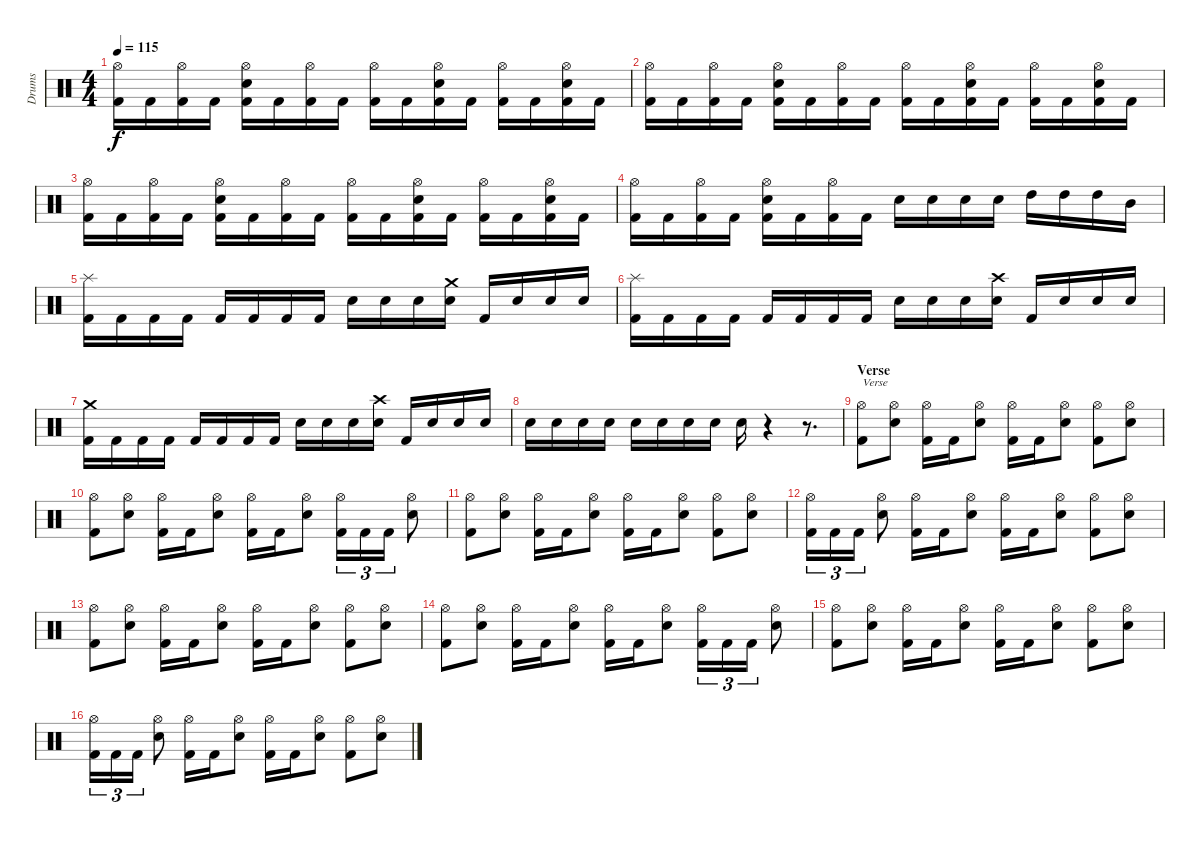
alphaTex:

\track ("Drums" "Drums") {instrument percussion}
\staff {score}
\articulation defaults
\ts (4 4)
\tempo 115
\clef neutral
\ks c
("Kick (hit) 2" "Hi-Hat (open)").16{dy f} "Kick (hit) 2".16 ("Kick (hit) 2" "Hi-Hat (open)").16 "Kick (hit) 2".16 ("Kick (hit) 2" "Electric Snare (hit)" "Hi-Hat (open)").16 "Kick (hit) 2".16 ("Kick (hit) 2" "Hi-Hat (open)").16 "Kick (hit) 2".16 ("Kick (hit) 2" "Hi-Hat (open)").16 "Kick (hit) 2".16 ("Kick (hit) 2" "Electric Snare (hit)" "Hi-Hat (open)").16 "Kick (hit) 2".16 ("Kick (hit) 2" "Hi-Hat (open)").16 "Kick (hit) 2".16 ("Kick (hit) 2" "Electric Snare (hit)" "Hi-Hat (open)").16 "Kick (hit) 2".16 |
("Kick (hit) 2" "Hi-Hat (open)").16 "Kick (hit) 2".16 ("Kick (hit) 2" "Hi-Hat (open)").16 "Kick (hit) 2".16 ("Kick (hit) 2" "Electric Snare (hit)" "Hi-Hat (open)").16 "Kick (hit) 2".16 ("Kick (hit) 2" "Hi-Hat (open)").16 "Kick (hit) 2".16 ("Kick (hit) 2" "Hi-Hat (open)").16 "Kick (hit) 2".16 ("Kick (hit) 2" "Electric Snare (hit)" "Hi-Hat (open)").16 "Kick (hit) 2".16 ("Kick (hit) 2" "Hi-Hat (open)").16 "Kick (hit) 2".16 ("Kick (hit) 2" "Electric Snare (hit)" "Hi-Hat (open)").16 "Kick (hit) 2".16 |
("Kick (hit) 2" "Hi-Hat (open)").16 "Kick (hit) 2".16 ("Kick (hit) 2" "Hi-Hat (open)").16 "Kick (hit) 2".16 ("Kick (hit) 2" "Electric Snare (hit)" "Hi-Hat (open)").16 "Kick (hit) 2".16 ("Kick (hit) 2" "Hi-Hat (open)").16 "Kick (hit) 2".16 ("Kick (hit) 2" "Hi-Hat (open)").16 "Kick (hit) 2".16 ("Kick (hit) 2" "Electric Snare (hit)" "Hi-Hat (open)").16 "Kick (hit) 2".16 ("Kick (hit) 2" "Hi-Hat (open)").16 "Kick (hit) 2".16 ("Kick (hit) 2" "Electric Snare (hit)" "Hi-Hat (open)").16 "Kick (hit) 2".16 |
("Kick (hit) 2" "Hi-Hat (open)").16 "Kick (hit) 2".16 ("Kick (hit) 2" "Hi-Hat (open)").16 "Kick (hit) 2".16 ("Kick (hit) 2" "Electric Snare (hit)" "Hi-Hat (open)").16 "Kick (hit) 2".16 ("Kick (hit) 2" "Hi-Hat (open)").16 "Kick (hit) 2".16 "Electric Snare (hit)".16 "Electric Snare (hit)".16 "Electric Snare (hit)".16 "Electric Snare (hit)".16 "High Tom (hit)".16 "High Tom (hit)".16 "High Tom (hit)".16 "Mid Tom (hit)".16 |
("Kick (hit) 2" "Splash (hit)").16 "Kick (hit) 2".16 "Kick (hit) 2".16 "Kick (hit) 2".16 "Kick (hit) 2".16 "Kick (hit) 2".16 "Kick (hit) 2".16 "Kick (hit) 2".16 "Electric Snare (hit)".16 "Electric Snare (hit)".16 "Electric Snare (hit)".16 ("Electric Snare (hit)" "Crash medium (hit)").16 "Kick (hit) 2".16 "Electric Snare (hit)".16 "Electric Snare (hit)".16 "Electric Snare (hit)".16 |
("Kick (hit) 2" "Splash (hit)").16 "Kick (hit) 2".16 "Kick (hit) 2".16 "Kick (hit) 2".16 "Kick (hit) 2".16 "Kick (hit) 2".16 "Kick (hit) 2".16 "Kick (hit) 2".16 "Electric Snare (hit)".16 "Electric Snare (hit)".16 "Electric Snare (hit)".16 ("Electric Snare (hit)" "Crash high (hit)").16 "Kick (hit) 2".16 "Electric Snare (hit)".16 "Electric Snare (hit)".16 "Electric Snare (hit)".16 |
("Kick (hit) 2" "Crash medium (hit)").16 "Kick (hit) 2".16 "Kick (hit) 2".16 "Kick (hit) 2".16 "Kick (hit) 2".16 "Kick (hit) 2".16 "Kick (hit) 2".16 "Kick (hit) 2".16 "Electric Snare (hit)".16 "Electric Snare (hit)".16 "Electric Snare (hit)".16 ("Electric Snare (hit)" "Crash high (hit)").16 "Kick (hit) 2".16 "Electric Snare (hit)".16 "Electric Snare (hit)".16 "Electric Snare (hit)".16 |
"Electric Snare (hit)".16 "Electric Snare (hit)".16 "Electric Snare (hit)".16 "Electric Snare (hit)".16 "Electric Snare (hit)".16 "Electric Snare (hit)".16 "Electric Snare (hit)".16 "Electric Snare (hit)".16 "Electric Snare (hit)".16 r.4 r.8{d} |
\section ("" "Verse")
("Kick (hit) 2" "Hi-Hat (open)").8{txt "Verse"} ("Electric Snare (hit)" "Hi-Hat (open)").8 ("Kick (hit) 2" "Hi-Hat (open)").16 "Kick (hit) 2".16 ("Electric Snare (hit)" "Hi-Hat (open)").8 ("Kick (hit) 2" "Hi-Hat (open)").16 "Kick (hit) 2".16 ("Electric Snare (hit)" "Hi-Hat (open)").8 ("Kick (hit) 2" "Hi-Hat (open)").8 ("Electric Snare (hit)" "Hi-Hat (open)").8 |
("Kick (hit) 2" "Hi-Hat (open)").8 ("Electric Snare (hit)" "Hi-Hat (open)").8 ("Kick (hit) 2" "Hi-Hat (open)").16 "Kick (hit) 2".16 ("Electric Snare (hit)" "Hi-Hat (open)").8 ("Kick (hit) 2" "Hi-Hat (open)").16 "Kick (hit) 2".16 ("Electric Snare (hit)" "Hi-Hat (open)").8 ("Kick (hit) 2" "Hi-Hat (open)").16{tu (3 2)} "Kick (hit) 2".16{tu (3 2)} "Kick (hit) 2".16{tu (3 2)} ("Electric Snare (hit)" "Hi-Hat (open)").8 |
("Kick (hit) 2" "Hi-Hat (open)").8 ("Electric Snare (hit)" "Hi-Hat (open)").8 ("Kick (hit) 2" "Hi-Hat (open)").16 "Kick (hit) 2".16 ("Electric Snare (hit)" "Hi-Hat (open)").8 ("Kick (hit) 2" "Hi-Hat (open)").16 "Kick (hit) 2".16 ("Electric Snare (hit)" "Hi-Hat (open)").8 ("Kick (hit) 2" "Hi-Hat (open)").8 ("Electric Snare (hit)" "Hi-Hat (open)").8 |
("Kick (hit) 2" "Hi-Hat (open)").16{tu (3 2)} "Kick (hit) 2".16{tu (3 2)} "Kick (hit) 2".16{tu (3 2)} ("Electric Snare (hit)" "Hi-Hat (open)").8 ("Kick (hit) 2" "Hi-Hat (open)").16 "Kick (hit) 2".16 ("Electric Snare (hit)" "Hi-Hat (open)").8 ("Kick (hit) 2" "Hi-Hat (open)").16 "Kick (hit) 2".16 ("Electric Snare (hit)" "Hi-Hat (open)").8 ("Kick (hit) 2" "Hi-Hat (open)").8 ("Electric Snare (hit)" "Hi-Hat (open)").8 |
("Kick (hit) 2" "Hi-Hat (open)").8 ("Electric Snare (hit)" "Hi-Hat (open)").8 ("Kick (hit) 2" "Hi-Hat (open)").16 "Kick (hit) 2".16 ("Electric Snare (hit)" "Hi-Hat (open)").8 ("Kick (hit) 2" "Hi-Hat (open)").16 "Kick (hit) 2".16 ("Electric Snare (hit)" "Hi-Hat (open)").8 ("Kick (hit) 2" "Hi-Hat (open)").8 ("Electric Snare (hit)" "Hi-Hat (open)").8 |
("Kick (hit) 2" "Hi-Hat (open)").8 ("Electric Snare (hit)" "Hi-Hat (open)").8 ("Kick (hit) 2" "Hi-Hat (open)").16 "Kick (hit) 2".16 ("Electric Snare (hit)" "Hi-Hat (open)").8 ("Kick (hit) 2" "Hi-Hat (open)").16 "Kick (hit) 2".16 ("Electric Snare (hit)" "Hi-Hat (open)").8 ("Kick (hit) 2" "Hi-Hat (open)").16{tu (3 2)} "Kick (hit) 2".16{tu (3 2)} "Kick (hit) 2".16{tu (3 2)} ("Electric Snare (hit)" "Hi-Hat (open)").8 |
("Kick (hit) 2" "Hi-Hat (open)").8 ("Electric Snare (hit)" "Hi-Hat (open)").8 ("Kick (hit) 2" "Hi-Hat (open)").16 "Kick (hit) 2".16 ("Electric Snare (hit)" "Hi-Hat (open)").8 ("Kick (hit) 2" "Hi-Hat (open)").16 "Kick (hit) 2".16 ("Electric Snare (hit)" "Hi-Hat (open)").8 ("Kick (hit) 2" "Hi-Hat (open)").8 ("Electric Snare (hit)" "Hi-Hat (open)").8 |
("Kick (hit) 2" "Hi-Hat (open)").16{tu (3 2)} "Kick (hit) 2".16{tu (3 2)} "Kick (hit) 2".16{tu (3 2)} ("Electric Snare (hit)" "Hi-Hat (open)").8 ("Kick (hit) 2" "Hi-Hat (open)").16 "Kick (hit) 2".16 ("Electric Snare (hit)" "Hi-Hat (open)").8 ("Kick (hit) 2" "Hi-Hat (open)").16 "Kick (hit) 2".16 ("Electric Snare (hit)" "Hi-Hat (open)").8 ("Kick (hit) 2" "Hi-Hat (open)").8 ("Electric Snare (hit)" "Hi-Hat (open)").8
